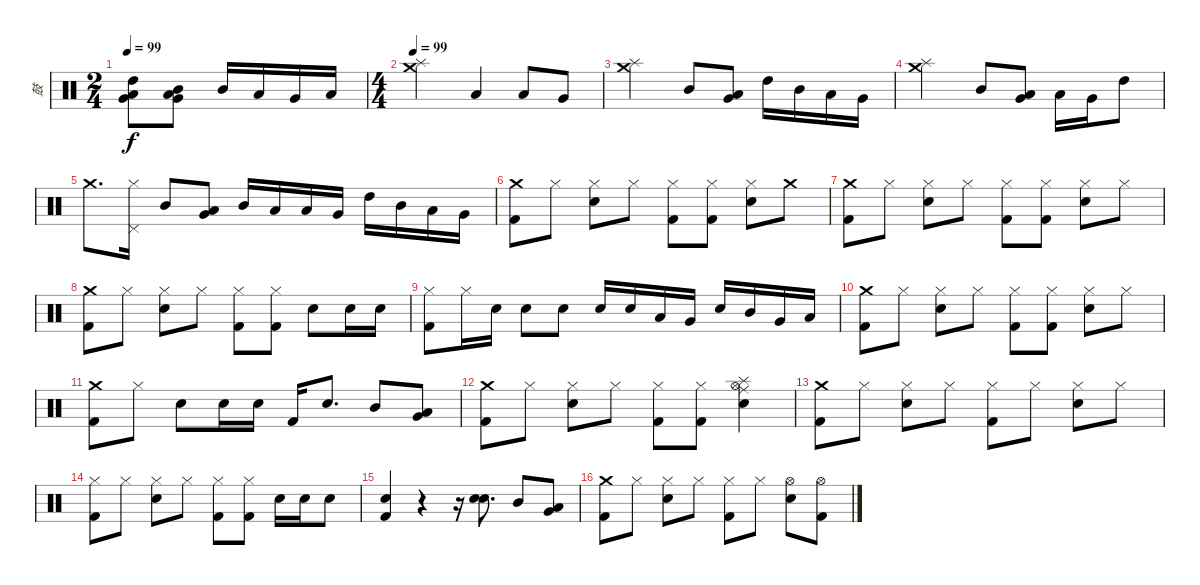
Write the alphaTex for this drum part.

\track ("鼓" "鼓") {instrument percussion}
\staff {score}
\articulation defaults
\ts (2 4)
\tempo 99
\clef neutral
\ks c
("High Tom (hit)" "Low Tom (hit)" "Very Low Tom (hit)").8{dy f} ("Very Low Tom (hit)" "Mid Tom (hit)" "Low Tom (hit)").8 "Mid Tom (hit)".16 "Low Tom (hit)".16 "Very Low Tom (hit)".16 "Low Tom (hit)".16 |
\ts (4 4)
\tempo 99
("Crash medium (hit)" "Splash (hit)").2 "Low Tom (hit)".4 "Low Tom (hit)".8 "Very Low Tom (hit)".8 |
("Crash medium (hit)" "Splash (hit)").2 "Mid Tom (hit)".8 ("Very Low Tom (hit)" "Low Tom (hit)").8 "High Tom (hit)".16 "Mid Tom (hit)".16 "Low Tom (hit)".16 "Very Low Tom (hit)".16 |
("Crash medium (hit)" "Splash (hit)").2 "Mid Tom (hit)".8 ("Very Low Tom (hit)" "Low Tom (hit)").8 "Low Tom (hit)".16 "Very Low Tom (hit)".16 "High Tom (hit)".8 |
"Crash medium (hit)".8{d} ("Pedal Hi-Hat (hit)" "Hi-Hat (closed)").16 "Mid Tom (hit)".8 ("Very Low Tom (hit)" "Low Tom (hit)").8 "Mid Tom (hit)".16 "Low Tom (hit)".16 "Low Tom (hit)".16 "Very Low Tom (hit)".16 "High Tom (hit)".16 "Mid Tom (hit)".16 "Low Tom (hit)".16 "Very Low Tom (hit)".16 |
("Crash medium (hit)" "Kick (hit) 2").8 "Hi-Hat (closed)".8 ("Hi-Hat (closed)" "Electric Snare (hit)").8 "Hi-Hat (closed)".8 ("Hi-Hat (closed)" "Kick (hit) 2").8 ("Hi-Hat (closed)" "Kick (hit) 2").8 ("Hi-Hat (closed)" "Electric Snare (hit)").8 "Crash medium (hit)".8 |
("Crash medium (hit)" "Kick (hit) 2").8 "Hi-Hat (closed)".8 ("Hi-Hat (closed)" "Electric Snare (hit)").8 "Hi-Hat (closed)".8 ("Hi-Hat (closed)" "Kick (hit) 2").8 ("Hi-Hat (closed)" "Kick (hit) 2").8 ("Hi-Hat (closed)" "Electric Snare (hit)").8 "Hi-Hat (closed)".8 |
("Crash medium (hit)" "Kick (hit) 2").8 "Hi-Hat (closed)".8 ("Hi-Hat (closed)" "Electric Snare (hit)").8 "Hi-Hat (closed)".8 ("Hi-Hat (closed)" "Kick (hit) 2").8 ("Hi-Hat (closed)" "Kick (hit) 2").8 "Electric Snare (hit)".8 "Electric Snare (hit)".16 "Electric Snare (hit)".16 |
("Hi-Hat (closed)" "Kick (hit) 2").8 "Hi-Hat (closed)".16 "Electric Snare (hit)".16 "Electric Snare (hit)".8 "Electric Snare (hit)".8 "Electric Snare (hit)".16 "Electric Snare (hit)".16 "Low Tom (hit)".16 "Very Low Tom (hit)".16 "Electric Snare (hit)".16 "Mid Tom (hit)".16 "Very Low Tom (hit)".16 "Low Tom (hit)".16 |
("Crash medium (hit)" "Kick (hit) 2").8 "Hi-Hat (closed)".8 ("Hi-Hat (closed)" "Electric Snare (hit)").8 "Hi-Hat (closed)".8 ("Hi-Hat (closed)" "Kick (hit) 2").8 ("Hi-Hat (closed)" "Kick (hit) 2").8 ("Hi-Hat (closed)" "Electric Snare (hit)").8 "Hi-Hat (closed)".8 |
("Crash medium (hit)" "Kick (hit) 2").8 "Hi-Hat (closed)".8 "Electric Snare (hit)".8 "Electric Snare (hit)".16 "Electric Snare (hit)".16 "Kick (hit) 2".16 "Electric Snare (hit)".8{d} "Mid Tom (hit)".8 ("Very Low Tom (hit)" "Low Tom (hit)").8 |
("Crash medium (hit)" "Kick (hit) 2").8 "Hi-Hat (closed)".8 ("Hi-Hat (closed)" "Electric Snare (hit)").8 "Hi-Hat (closed)".8 ("Hi-Hat (closed)" "Kick (hit) 2").8 ("Hi-Hat (closed)" "Kick (hit) 2").8 ("Hi-Hat (open)" "Electric Snare (hit)" "Splash (hit)" "Ride (middle)").4 |
("Crash medium (hit)" "Kick (hit) 2").8 "Hi-Hat (closed)".8 ("Hi-Hat (closed)" "Electric Snare (hit)").8 "Hi-Hat (closed)".8 ("Hi-Hat (closed)" "Kick (hit) 2").8 "Hi-Hat (closed)".8 ("Hi-Hat (closed)" "Electric Snare (hit)").8 "Hi-Hat (closed)".8 |
("Hi-Hat (closed)" "Kick (hit) 2").8 "Hi-Hat (closed)".8 ("Hi-Hat (closed)" "Electric Snare (hit)").8 "Hi-Hat (closed)".8 ("Hi-Hat (closed)" "Kick (hit) 2").8 ("Hi-Hat (closed)" "Kick (hit) 2").8 "Electric Snare (hit)".16 "Electric Snare (hit)".16 "Electric Snare (hit)".8 |
("Electric Snare (hit)" "Kick (hit) 2").4 r.4 r.16 ("Electric Snare (hit)" "Snare (hit) 2").8{d} "Mid Tom (hit)".8 ("Very Low Tom (hit)" "Low Tom (hit)").8 |
("Crash medium (hit)" "Kick (hit) 2").8 "Hi-Hat (closed)".8 ("Hi-Hat (closed)" "Electric Snare (hit)").8 "Hi-Hat (closed)".8 ("Hi-Hat (closed)" "Kick (hit) 2").8 "Hi-Hat (closed)".8 ("Hi-Hat (open)" "Electric Snare (hit)").8 ("Hi-Hat (open)" "Kick (hit) 2").8
